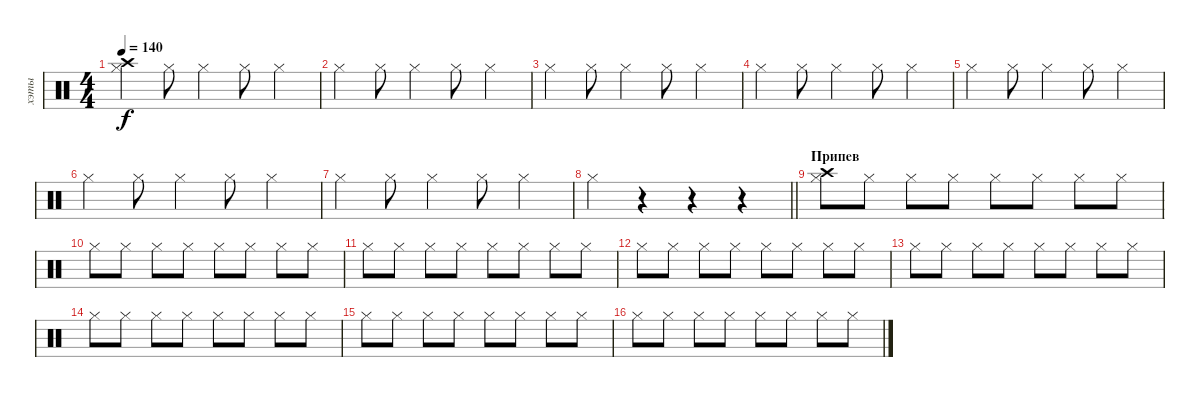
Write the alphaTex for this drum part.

\track ("хэты" "хэты") {instrument percussion}
\staff {score}
\articulation defaults
\ts (4 4)
\tempo 140
\clef neutral
\ks c
("Hi-Hat (closed)" "Crash high (hit)").4{dy f} "Hi-Hat (closed)".8 "Hi-Hat (closed)".4 "Hi-Hat (closed)".8 "Hi-Hat (closed)".4 |
"Hi-Hat (closed)".4 "Hi-Hat (closed)".8 "Hi-Hat (closed)".4 "Hi-Hat (closed)".8 "Hi-Hat (closed)".4 |
"Hi-Hat (closed)".4 "Hi-Hat (closed)".8 "Hi-Hat (closed)".4 "Hi-Hat (closed)".8 "Hi-Hat (closed)".4 |
"Hi-Hat (closed)".4 "Hi-Hat (closed)".8 "Hi-Hat (closed)".4 "Hi-Hat (closed)".8 "Hi-Hat (closed)".4 |
"Hi-Hat (closed)".4 "Hi-Hat (closed)".8 "Hi-Hat (closed)".4 "Hi-Hat (closed)".8 "Hi-Hat (closed)".4 |
"Hi-Hat (closed)".4 "Hi-Hat (closed)".8 "Hi-Hat (closed)".4 "Hi-Hat (closed)".8 "Hi-Hat (closed)".4 |
"Hi-Hat (closed)".4 "Hi-Hat (closed)".8 "Hi-Hat (closed)".4 "Hi-Hat (closed)".8 "Hi-Hat (closed)".4 |
\barLineRight lightlight "Hi-Hat (closed)".4
r.4 r.4 r.4 |
\section ("" "Припев")
("Hi-Hat (closed)" "Crash high (hit)").8 "Hi-Hat (closed)".8 "Hi-Hat (closed)".8 "Hi-Hat (closed)".8 "Hi-Hat (closed)".8 "Hi-Hat (closed)".8 "Hi-Hat (closed)".8 "Hi-Hat (closed)".8 |
"Hi-Hat (closed)".8 "Hi-Hat (closed)".8 "Hi-Hat (closed)".8 "Hi-Hat (closed)".8 "Hi-Hat (closed)".8 "Hi-Hat (closed)".8 "Hi-Hat (closed)".8 "Hi-Hat (closed)".8 |
"Hi-Hat (closed)".8 "Hi-Hat (closed)".8 "Hi-Hat (closed)".8 "Hi-Hat (closed)".8 "Hi-Hat (closed)".8 "Hi-Hat (closed)".8 "Hi-Hat (closed)".8 "Hi-Hat (closed)".8 |
"Hi-Hat (closed)".8 "Hi-Hat (closed)".8 "Hi-Hat (closed)".8 "Hi-Hat (closed)".8 "Hi-Hat (closed)".8 "Hi-Hat (closed)".8 "Hi-Hat (closed)".8 "Hi-Hat (closed)".8 |
"Hi-Hat (closed)".8 "Hi-Hat (closed)".8 "Hi-Hat (closed)".8 "Hi-Hat (closed)".8 "Hi-Hat (closed)".8 "Hi-Hat (closed)".8 "Hi-Hat (closed)".8 "Hi-Hat (closed)".8 |
"Hi-Hat (closed)".8 "Hi-Hat (closed)".8 "Hi-Hat (closed)".8 "Hi-Hat (closed)".8 "Hi-Hat (closed)".8 "Hi-Hat (closed)".8 "Hi-Hat (closed)".8 "Hi-Hat (closed)".8 |
"Hi-Hat (closed)".8 "Hi-Hat (closed)".8 "Hi-Hat (closed)".8 "Hi-Hat (closed)".8 "Hi-Hat (closed)".8 "Hi-Hat (closed)".8 "Hi-Hat (closed)".8 "Hi-Hat (closed)".8 |
"Hi-Hat (closed)".8 "Hi-Hat (closed)".8 "Hi-Hat (closed)".8 "Hi-Hat (closed)".8 "Hi-Hat (closed)".8 "Hi-Hat (closed)".8 "Hi-Hat (closed)".8 "Hi-Hat (closed)".8
